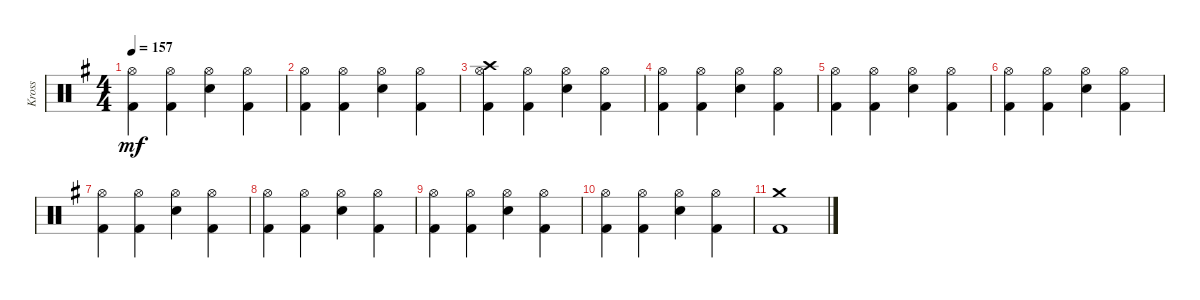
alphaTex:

\track ("Kross" "Kross") {instrument percussion}
\staff {score}
\articulation defaults
\ts (4 4)
\tempo 157
\clef neutral
\ks g
("Hi-Hat (open)" "Kick (hit) 2").4{dy mf} ("Hi-Hat (open)" "Kick (hit) 2").4 ("Hi-Hat (open)" "Snare (hit) 2").4 ("Hi-Hat (open)" "Kick (hit) 2").4 |
("Hi-Hat (open)" "Kick (hit) 2").4 ("Hi-Hat (open)" "Kick (hit) 2").4 ("Hi-Hat (open)" "Snare (hit) 2").4 ("Hi-Hat (open)" "Kick (hit) 2").4 |
("Crash high (hit)" "Hi-Hat (open)" "Kick (hit) 2").4 ("Hi-Hat (open)" "Kick (hit) 2").4 ("Hi-Hat (open)" "Snare (hit) 2").4 ("Hi-Hat (open)" "Kick (hit) 2").4 |
("Hi-Hat (open)" "Kick (hit) 2").4 ("Hi-Hat (open)" "Kick (hit) 2").4 ("Hi-Hat (open)" "Snare (hit) 2").4 ("Hi-Hat (open)" "Kick (hit) 2").4 |
("Hi-Hat (open)" "Kick (hit) 2").4 ("Hi-Hat (open)" "Kick (hit) 2").4 ("Hi-Hat (open)" "Snare (hit) 2").4 ("Hi-Hat (open)" "Kick (hit) 2").4 |
("Hi-Hat (open)" "Kick (hit) 2").4 ("Hi-Hat (open)" "Kick (hit) 2").4 ("Hi-Hat (open)" "Snare (hit) 2").4 ("Hi-Hat (open)" "Kick (hit) 2").4 |
("Hi-Hat (open)" "Kick (hit) 2").4 ("Hi-Hat (open)" "Kick (hit) 2").4 ("Hi-Hat (open)" "Snare (hit) 2").4 ("Hi-Hat (open)" "Kick (hit) 2").4 |
("Hi-Hat (open)" "Kick (hit) 2").4 ("Hi-Hat (open)" "Kick (hit) 2").4 ("Hi-Hat (open)" "Snare (hit) 2").4 ("Hi-Hat (open)" "Kick (hit) 2").4 |
("Hi-Hat (open)" "Kick (hit) 2").4 ("Hi-Hat (open)" "Kick (hit) 2").4 ("Hi-Hat (open)" "Snare (hit) 2").4 ("Hi-Hat (open)" "Kick (hit) 2").4 |
("Hi-Hat (open)" "Kick (hit) 2").4 ("Hi-Hat (open)" "Kick (hit) 2").4 ("Hi-Hat (open)" "Snare (hit) 2").4 ("Hi-Hat (open)" "Kick (hit) 2").4 |
("Crash medium (hit)" "Kick (hit) 2").1
